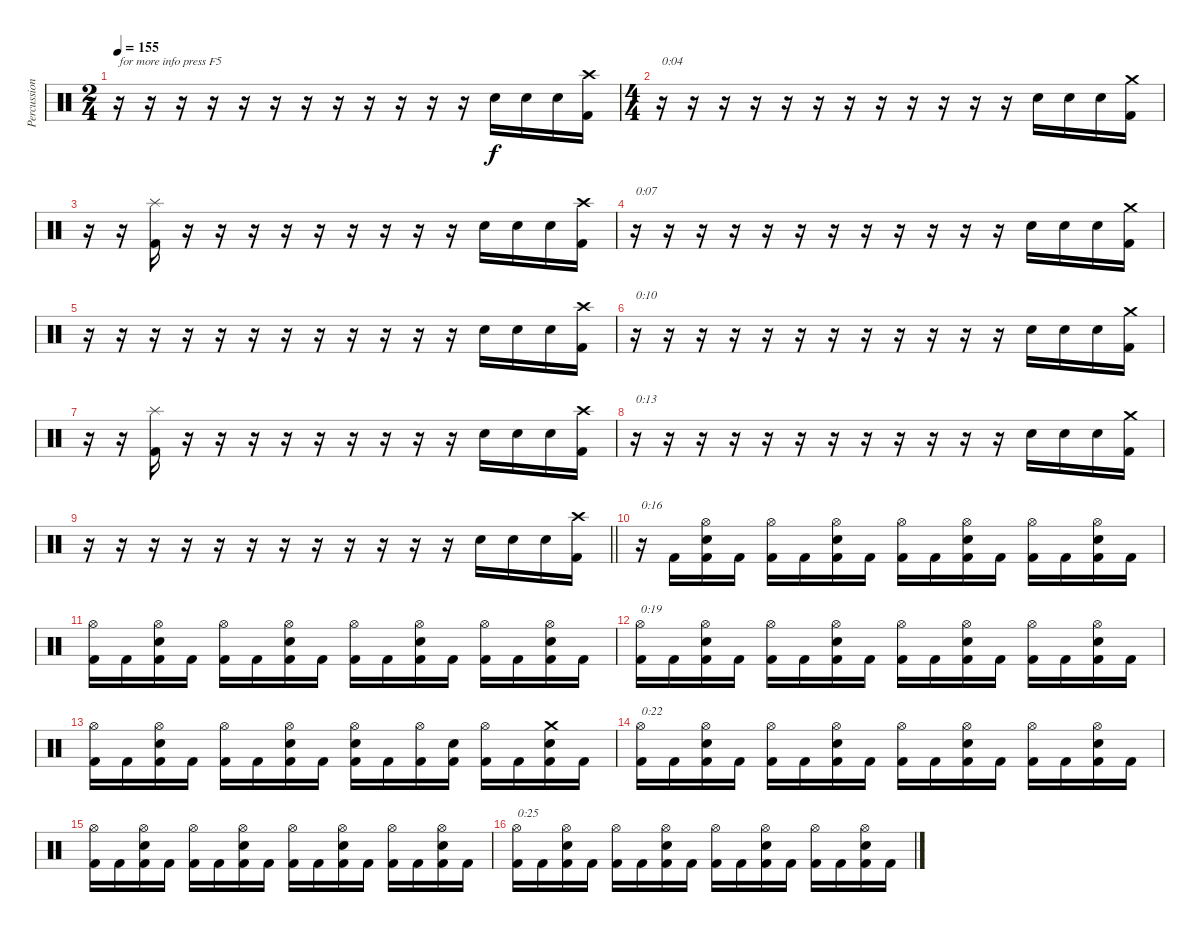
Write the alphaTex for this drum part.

\track ("Percussion" "Percussion") {instrument percussion}
\staff {score}
\articulation defaults
\ts (2 4)
\tempo 155
\clef neutral
\ks c
r.16{txt "for more info press F5" dy f} r.16 r.16 r.16 r.16 r.16 r.16 r.16 r.16 r.16 r.16 r.16 "Electric Snare (hit)".16 "Electric Snare (hit)".16 "Electric Snare (hit)".16 ("Crash high (hit)" "Kick (hit) 2").16 |
\ts (4 4)
r.16{txt "0:04"} r.16 r.16 r.16 r.16 r.16 r.16 r.16 r.16 r.16 r.16 r.16 "Electric Snare (hit)".16 "Electric Snare (hit)".16 "Electric Snare (hit)".16 ("Crash medium (hit)" "Kick (hit) 2").16 |
r.16 r.16 ("Splash (hit)" "Kick (hit) 2").16 r.16 r.16 r.16 r.16 r.16 r.16 r.16 r.16 r.16 "Electric Snare (hit)".16 "Electric Snare (hit)".16 "Electric Snare (hit)".16 ("Crash high (hit)" "Kick (hit) 2").16 |
r.16{txt "0:07"} r.16 r.16 r.16 r.16 r.16 r.16 r.16 r.16 r.16 r.16 r.16 "Electric Snare (hit)".16 "Electric Snare (hit)".16 "Electric Snare (hit)".16 ("Crash medium (hit)" "Kick (hit) 2").16 |
r.16 r.16 r.16 r.16 r.16 r.16 r.16 r.16 r.16 r.16 r.16 r.16 "Electric Snare (hit)".16 "Electric Snare (hit)".16 "Electric Snare (hit)".16 ("Crash high (hit)" "Kick (hit) 2").16 |
r.16{txt "0:10"} r.16 r.16 r.16 r.16 r.16 r.16 r.16 r.16 r.16 r.16 r.16 "Electric Snare (hit)".16 "Electric Snare (hit)".16 "Electric Snare (hit)".16 ("Crash medium (hit)" "Kick (hit) 2").16 |
r.16 r.16 ("Splash (hit)" "Kick (hit) 2").16 r.16 r.16 r.16 r.16 r.16 r.16 r.16 r.16 r.16 "Electric Snare (hit)".16 "Electric Snare (hit)".16 "Electric Snare (hit)".16 ("Crash high (hit)" "Kick (hit) 2").16 |
r.16{txt "0:13"} r.16 r.16 r.16 r.16 r.16 r.16 r.16 r.16 r.16 r.16 r.16 "Electric Snare (hit)".16 "Electric Snare (hit)".16 "Electric Snare (hit)".16 ("Crash medium (hit)" "Kick (hit) 2").16 |
\barLineRight lightlight
r.16 r.16 r.16 r.16 r.16 r.16 r.16 r.16 r.16 r.16 r.16 r.16 "Electric Snare (hit)".16 "Electric Snare (hit)".16 "Electric Snare (hit)".16 ("Crash high (hit)" "Kick (hit) 2").16 |
\section ("" "")
r.16{txt "0:16"} "Kick (hit) 2".16 ("Hi-Hat (open)" "Electric Snare (hit)" "Kick (hit) 2").16 "Kick (hit) 2".16 ("Hi-Hat (open)" "Kick (hit) 2").16 "Kick (hit) 2".16 ("Hi-Hat (open)" "Electric Snare (hit)" "Kick (hit) 2").16 "Kick (hit) 2".16 ("Hi-Hat (open)" "Kick (hit) 2").16 "Kick (hit) 2".16 ("Hi-Hat (open)" "Electric Snare (hit)" "Kick (hit) 2").16 "Kick (hit) 2".16 ("Hi-Hat (open)" "Kick (hit) 2").16 "Kick (hit) 2".16 ("Hi-Hat (open)" "Electric Snare (hit)" "Kick (hit) 2").16 "Kick (hit) 2".16 |
("Hi-Hat (open)" "Kick (hit) 2").16 "Kick (hit) 2".16 ("Hi-Hat (open)" "Electric Snare (hit)" "Kick (hit) 2").16 "Kick (hit) 2".16 ("Hi-Hat (open)" "Kick (hit) 2").16 "Kick (hit) 2".16 ("Hi-Hat (open)" "Electric Snare (hit)" "Kick (hit) 2").16 "Kick (hit) 2".16 ("Hi-Hat (open)" "Kick (hit) 2").16 "Kick (hit) 2".16 ("Hi-Hat (open)" "Electric Snare (hit)" "Kick (hit) 2").16 "Kick (hit) 2".16 ("Hi-Hat (open)" "Kick (hit) 2").16 "Kick (hit) 2".16 ("Hi-Hat (open)" "Electric Snare (hit)" "Kick (hit) 2").16 "Kick (hit) 2".16 |
("Hi-Hat (open)" "Kick (hit) 2").16{txt "0:19"} "Kick (hit) 2".16 ("Hi-Hat (open)" "Electric Snare (hit)" "Kick (hit) 2").16 "Kick (hit) 2".16 ("Hi-Hat (open)" "Kick (hit) 2").16 "Kick (hit) 2".16 ("Hi-Hat (open)" "Electric Snare (hit)" "Kick (hit) 2").16 "Kick (hit) 2".16 ("Hi-Hat (open)" "Kick (hit) 2").16 "Kick (hit) 2".16 ("Hi-Hat (open)" "Electric Snare (hit)" "Kick (hit) 2").16 "Kick (hit) 2".16 ("Hi-Hat (open)" "Kick (hit) 2").16 "Kick (hit) 2".16 ("Hi-Hat (open)" "Electric Snare (hit)" "Kick (hit) 2").16 "Kick (hit) 2".16 |
("Hi-Hat (open)" "Kick (hit) 2").16 "Kick (hit) 2".16 ("Hi-Hat (open)" "Electric Snare (hit)" "Kick (hit) 2").16 "Kick (hit) 2".16 ("Hi-Hat (open)" "Kick (hit) 2").16 "Kick (hit) 2".16 ("Hi-Hat (open)" "Electric Snare (hit)" "Kick (hit) 2").16 "Kick (hit) 2".16 ("Hi-Hat (open)" "Electric Snare (hit)" "Kick (hit) 2").16 "Kick (hit) 2".16 ("Hi-Hat (open)" "Kick (hit) 2").16 ("Electric Snare (hit)" "Kick (hit) 2").16 ("Hi-Hat (open)" "Kick (hit) 2").16 "Kick (hit) 2".16 ("Crash medium (hit)" "Electric Snare (hit)" "Kick (hit) 2").16 "Kick (hit) 2".16 |
("Hi-Hat (open)" "Kick (hit) 2").16{txt "0:22"} "Kick (hit) 2".16 ("Hi-Hat (open)" "Electric Snare (hit)" "Kick (hit) 2").16 "Kick (hit) 2".16 ("Hi-Hat (open)" "Kick (hit) 2").16 "Kick (hit) 2".16 ("Hi-Hat (open)" "Electric Snare (hit)" "Kick (hit) 2").16 "Kick (hit) 2".16 ("Hi-Hat (open)" "Kick (hit) 2").16 "Kick (hit) 2".16 ("Hi-Hat (open)" "Electric Snare (hit)" "Kick (hit) 2").16 "Kick (hit) 2".16 ("Hi-Hat (open)" "Kick (hit) 2").16 "Kick (hit) 2".16 ("Hi-Hat (open)" "Electric Snare (hit)" "Kick (hit) 2").16 "Kick (hit) 2".16 |
("Hi-Hat (open)" "Kick (hit) 2").16 "Kick (hit) 2".16 ("Hi-Hat (open)" "Electric Snare (hit)" "Kick (hit) 2").16 "Kick (hit) 2".16 ("Hi-Hat (open)" "Kick (hit) 2").16 "Kick (hit) 2".16 ("Hi-Hat (open)" "Electric Snare (hit)" "Kick (hit) 2").16 "Kick (hit) 2".16 ("Hi-Hat (open)" "Kick (hit) 2").16 "Kick (hit) 2".16 ("Hi-Hat (open)" "Electric Snare (hit)" "Kick (hit) 2").16 "Kick (hit) 2".16 ("Hi-Hat (open)" "Kick (hit) 2").16 "Kick (hit) 2".16 ("Hi-Hat (open)" "Electric Snare (hit)" "Kick (hit) 2").16 "Kick (hit) 2".16 |
("Hi-Hat (open)" "Kick (hit) 2").16{txt "0:25"} "Kick (hit) 2".16 ("Hi-Hat (open)" "Electric Snare (hit)" "Kick (hit) 2").16 "Kick (hit) 2".16 ("Hi-Hat (open)" "Kick (hit) 2").16 "Kick (hit) 2".16 ("Hi-Hat (open)" "Electric Snare (hit)" "Kick (hit) 2").16 "Kick (hit) 2".16 ("Hi-Hat (open)" "Kick (hit) 2").16 "Kick (hit) 2".16 ("Hi-Hat (open)" "Electric Snare (hit)" "Kick (hit) 2").16 "Kick (hit) 2".16 ("Hi-Hat (open)" "Kick (hit) 2").16 "Kick (hit) 2".16 ("Hi-Hat (open)" "Electric Snare (hit)" "Kick (hit) 2").16 "Kick (hit) 2".16
